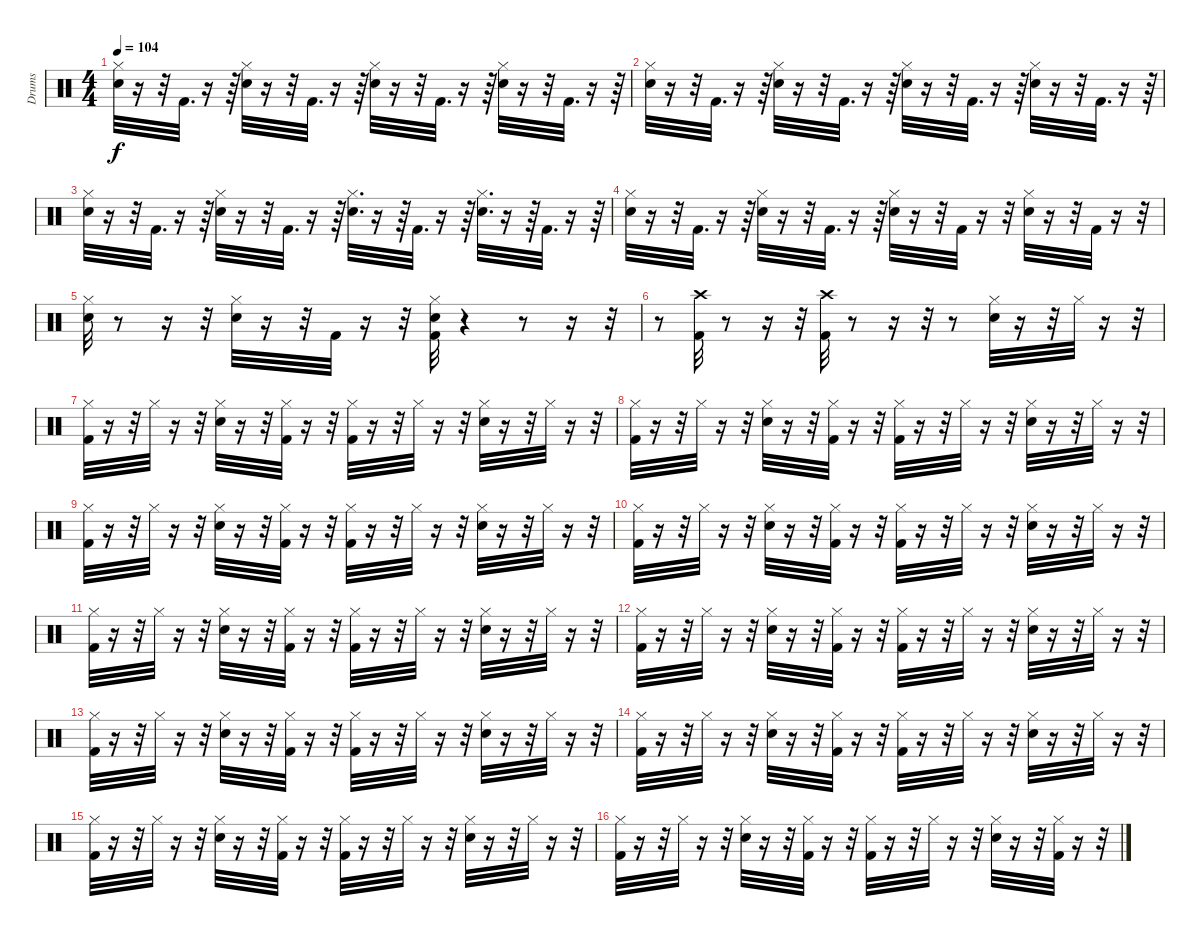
\track ("Drums" "Drums") {instrument percussion}
\staff {score}
\articulation defaults
\ts (4 4)
\tempo 104
\clef neutral
\ks c
("Hi-Hat (closed)" "Snare (hit) 2").32{dy f} r.16 r.32 "Kick (hit) 2".32{d} r.16 r.64 ("Hi-Hat (closed)" "Snare (hit) 2").32 r.16 r.32 "Kick (hit) 2".32{d} r.16 r.64 ("Hi-Hat (closed)" "Snare (hit) 2").32 r.16 r.32 "Kick (hit) 2".32{d} r.16 r.64 ("Hi-Hat (closed)" "Snare (hit) 2").32 r.16 r.32 "Kick (hit) 2".32{d} r.16 r.64 |
("Hi-Hat (closed)" "Snare (hit) 2").32 r.16 r.32 "Kick (hit) 2".32{d} r.16 r.64 ("Hi-Hat (closed)" "Snare (hit) 2").32 r.16 r.32 "Kick (hit) 2".32{d} r.16 r.64 ("Hi-Hat (closed)" "Snare (hit) 2").32 r.16 r.32 "Kick (hit) 2".32{d} r.16 r.64 ("Hi-Hat (closed)" "Snare (hit) 2").32 r.16 r.32 "Kick (hit) 2".32{d} r.16 r.64 |
("Hi-Hat (closed)" "Snare (hit) 2").32 r.16 r.32 "Kick (hit) 2".32{d} r.16 r.64 ("Hi-Hat (closed)" "Snare (hit) 2").32 r.16 r.32 "Kick (hit) 2".32{d} r.16 r.64 ("Hi-Hat (closed)" "Snare (hit) 2").32{d} r.16 r.64 "Kick (hit) 2".32{d} r.16 r.64 ("Hi-Hat (closed)" "Snare (hit) 2").32{d} r.16 r.64 "Kick (hit) 2".32{d} r.16 r.64 |
("Hi-Hat (closed)" "Snare (hit) 2").32 r.16 r.32 "Kick (hit) 2".32{d} r.16 r.64 ("Hi-Hat (closed)" "Snare (hit) 2").32 r.16 r.32 "Kick (hit) 2".32{d} r.16 r.64 ("Hi-Hat (closed)" "Snare (hit) 2").32 r.16 r.32 "Kick (hit) 2".32 r.16 r.32 ("Hi-Hat (closed)" "Snare (hit) 2").32 r.16 r.32 "Kick (hit) 2".32 r.16 r.32 |
("Hi-Hat (closed)" "Snare (hit) 2").32 r.8 r.16 r.32 ("Hi-Hat (closed)" "Snare (hit) 2").32 r.16 r.32 "Kick (hit) 2".32 r.16 r.32 ("Hi-Hat (closed)" "Kick (hit) 2" "Snare (hit) 2").32 r.4 r.8 r.16 r.32 |
r.8 ("Crash high (hit)" "Kick (hit) 2").32 r.8 r.16 r.32 ("Crash high (hit)" "Kick (hit) 2").32 r.8 r.16 r.32 r.8 ("Hi-Hat (closed)" "Snare (hit) 2").32 r.16 r.32 "Hi-Hat (closed)".32 r.16 r.32 |
("Hi-Hat (closed)" "Kick (hit) 2").32 r.16 r.32 "Hi-Hat (closed)".32 r.16 r.32 ("Hi-Hat (closed)" "Snare (hit) 2").32 r.16 r.32 ("Hi-Hat (closed)" "Kick (hit) 2").32 r.16 r.32 ("Hi-Hat (closed)" "Kick (hit) 2").32 r.16 r.32 "Hi-Hat (closed)".32 r.16 r.32 ("Hi-Hat (closed)" "Snare (hit) 2").32 r.16 r.32 "Hi-Hat (closed)".32 r.16 r.32 |
("Hi-Hat (closed)" "Kick (hit) 2").32 r.16 r.32 "Hi-Hat (closed)".32 r.16 r.32 ("Hi-Hat (closed)" "Snare (hit) 2").32 r.16 r.32 ("Hi-Hat (closed)" "Kick (hit) 2").32 r.16 r.32 ("Hi-Hat (closed)" "Kick (hit) 2").32 r.16 r.32 "Hi-Hat (closed)".32 r.16 r.32 ("Hi-Hat (closed)" "Snare (hit) 2").32 r.16 r.32 "Hi-Hat (closed)".32 r.16 r.32 |
("Hi-Hat (closed)" "Kick (hit) 2").32 r.16 r.32 "Hi-Hat (closed)".32 r.16 r.32 ("Hi-Hat (closed)" "Snare (hit) 2").32 r.16 r.32 ("Hi-Hat (closed)" "Kick (hit) 2").32 r.16 r.32 ("Hi-Hat (closed)" "Kick (hit) 2").32 r.16 r.32 "Hi-Hat (closed)".32 r.16 r.32 ("Hi-Hat (closed)" "Snare (hit) 2").32 r.16 r.32 "Hi-Hat (closed)".32 r.16 r.32 |
("Hi-Hat (closed)" "Kick (hit) 2").32 r.16 r.32 "Hi-Hat (closed)".32 r.16 r.32 ("Hi-Hat (closed)" "Snare (hit) 2").32 r.16 r.32 ("Hi-Hat (closed)" "Kick (hit) 2").32 r.16 r.32 ("Hi-Hat (closed)" "Kick (hit) 2").32 r.16 r.32 "Hi-Hat (closed)".32 r.16 r.32 ("Hi-Hat (closed)" "Snare (hit) 2").32 r.16 r.32 "Hi-Hat (closed)".32 r.16 r.32 |
("Hi-Hat (closed)" "Kick (hit) 2").32 r.16 r.32 "Hi-Hat (closed)".32 r.16 r.32 ("Hi-Hat (closed)" "Snare (hit) 2").32 r.16 r.32 ("Hi-Hat (closed)" "Kick (hit) 2").32 r.16 r.32 ("Hi-Hat (closed)" "Kick (hit) 2").32 r.16 r.32 "Hi-Hat (closed)".32 r.16 r.32 ("Hi-Hat (closed)" "Snare (hit) 2").32 r.16 r.32 "Hi-Hat (closed)".32 r.16 r.32 |
("Hi-Hat (closed)" "Kick (hit) 2").32 r.16 r.32 "Hi-Hat (closed)".32 r.16 r.32 ("Hi-Hat (closed)" "Snare (hit) 2").32 r.16 r.32 ("Hi-Hat (closed)" "Kick (hit) 2").32 r.16 r.32 ("Hi-Hat (closed)" "Kick (hit) 2").32 r.16 r.32 "Hi-Hat (closed)".32 r.16 r.32 ("Hi-Hat (closed)" "Snare (hit) 2").32 r.16 r.32 "Hi-Hat (closed)".32 r.16 r.32 |
("Hi-Hat (closed)" "Kick (hit) 2").32 r.16 r.32 "Hi-Hat (closed)".32 r.16 r.32 ("Hi-Hat (closed)" "Snare (hit) 2").32 r.16 r.32 ("Hi-Hat (closed)" "Kick (hit) 2").32 r.16 r.32 ("Hi-Hat (closed)" "Kick (hit) 2").32 r.16 r.32 "Hi-Hat (closed)".32 r.16 r.32 ("Hi-Hat (closed)" "Snare (hit) 2").32 r.16 r.32 "Hi-Hat (closed)".32 r.16 r.32 |
("Hi-Hat (closed)" "Kick (hit) 2").32 r.16 r.32 "Hi-Hat (closed)".32 r.16 r.32 ("Hi-Hat (closed)" "Snare (hit) 2").32 r.16 r.32 ("Hi-Hat (closed)" "Kick (hit) 2").32 r.16 r.32 ("Hi-Hat (closed)" "Kick (hit) 2").32 r.16 r.32 "Hi-Hat (closed)".32 r.16 r.32 ("Hi-Hat (closed)" "Snare (hit) 2").32 r.16 r.32 "Hi-Hat (closed)".32 r.16 r.32 |
("Hi-Hat (closed)" "Kick (hit) 2").32 r.16 r.32 "Hi-Hat (closed)".32 r.16 r.32 ("Hi-Hat (closed)" "Snare (hit) 2").32 r.16 r.32 ("Hi-Hat (closed)" "Kick (hit) 2").32 r.16 r.32 ("Hi-Hat (closed)" "Kick (hit) 2").32 r.16 r.32 "Hi-Hat (closed)".32 r.16 r.32 ("Hi-Hat (closed)" "Snare (hit) 2").32 r.16 r.32 "Hi-Hat (closed)".32 r.16 r.32 |
("Hi-Hat (closed)" "Kick (hit) 2").32 r.16 r.32 "Hi-Hat (closed)".32 r.16 r.32 ("Hi-Hat (closed)" "Snare (hit) 2").32 r.16 r.32 ("Hi-Hat (closed)" "Kick (hit) 2").32 r.16 r.32 ("Hi-Hat (closed)" "Kick (hit) 2").32 r.16 r.32 "Hi-Hat (closed)".32 r.16 r.32 ("Hi-Hat (closed)" "Snare (hit) 2").32 r.16 r.32 ("Hi-Hat (closed)" "Kick (hit) 2").32 r.16 r.32
